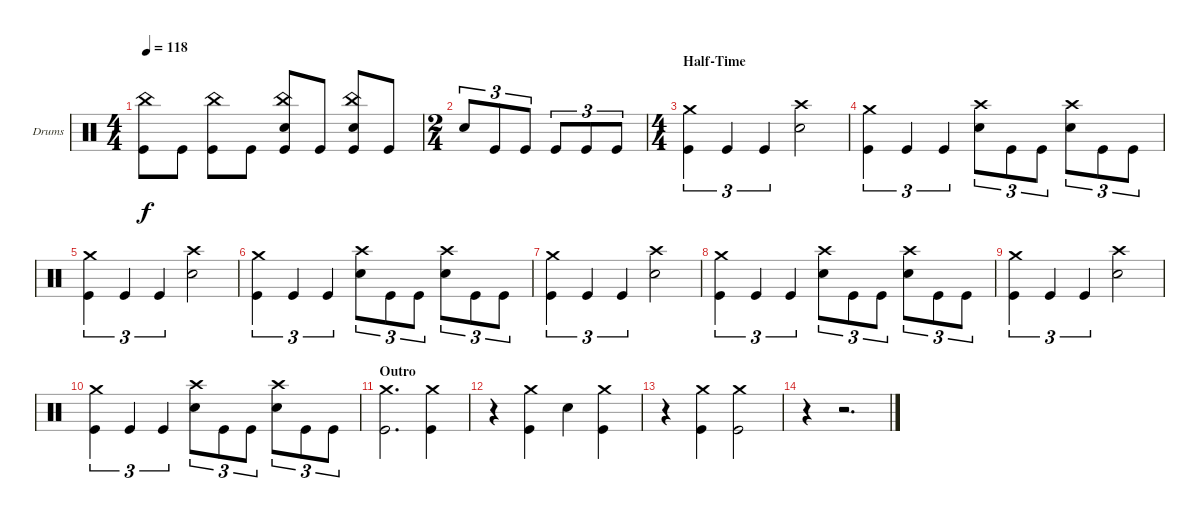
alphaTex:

\bracketExtendMode groupsimilarinstruments
\firstSystemTrackNameOrientation horizontal
\otherSystemsTrackNameOrientation horizontal
\track ("Drumkit" "Drums") {solo instrument percussion}
\staff {score}
\articulation defaults
\ts (4 4)
\tempo 118
\clef neutral
\ks c
("Kick (hit)" "China (hit)").8{dy f} "Kick (hit)".8 ("Kick (hit)" "China (hit)").8 "Kick (hit)".8 ("Kick (hit)" "Snare (hit) 2" "China (hit)").8 "Kick (hit)".8 ("Kick (hit)" "Snare (hit) 2" "China (hit)").8 "Kick (hit)".8 |
\ts (2 4)
\beaming (8 2 2)
"Snare (hit) 2".8{tu (3 2)} "Kick (hit)".8{tu (3 2)} "Kick (hit)".8{tu (3 2)} "Kick (hit)".8{tu (3 2)} "Kick (hit)".8{tu (3 2)} "Kick (hit)".8{tu (3 2)} |
\ts (4 4)
\beaming (8 2 2 2 2)
\section ("" "Half-Time")
("Kick (hit)" "Crash medium (hit)").4{tu (3 2)} "Kick (hit)".4{tu (3 2)} "Kick (hit)".4{tu (3 2)} ("Snare (hit) 2" "Crash high (hit)").2 |
("Kick (hit)" "Crash medium (hit)").4{tu (3 2)} "Kick (hit)".4{tu (3 2)} "Kick (hit)".4{tu (3 2)} ("Snare (hit) 2" "Crash high (hit)").8{tu (3 2)} "Kick (hit)".8{tu (3 2)} "Kick (hit)".8{tu (3 2)} ("Snare (hit) 2" "Crash high (hit)").8{tu (3 2)} "Kick (hit)".8{tu (3 2)} "Kick (hit)".8{tu (3 2)} |
("Kick (hit)" "Crash medium (hit)").4{tu (3 2)} "Kick (hit)".4{tu (3 2)} "Kick (hit)".4{tu (3 2)} ("Snare (hit) 2" "Crash high (hit)").2 |
("Kick (hit)" "Crash medium (hit)").4{tu (3 2)} "Kick (hit)".4{tu (3 2)} "Kick (hit)".4{tu (3 2)} ("Snare (hit) 2" "Crash high (hit)").8{tu (3 2)} "Kick (hit)".8{tu (3 2)} "Kick (hit)".8{tu (3 2)} ("Snare (hit) 2" "Crash high (hit)").8{tu (3 2)} "Kick (hit)".8{tu (3 2)} "Kick (hit)".8{tu (3 2)} |
("Kick (hit)" "Crash medium (hit)").4{tu (3 2)} "Kick (hit)".4{tu (3 2)} "Kick (hit)".4{tu (3 2)} ("Snare (hit) 2" "Crash high (hit)").2 |
("Kick (hit)" "Crash medium (hit)").4{tu (3 2)} "Kick (hit)".4{tu (3 2)} "Kick (hit)".4{tu (3 2)} ("Snare (hit) 2" "Crash high (hit)").8{tu (3 2)} "Kick (hit)".8{tu (3 2)} "Kick (hit)".8{tu (3 2)} ("Snare (hit) 2" "Crash high (hit)").8{tu (3 2)} "Kick (hit)".8{tu (3 2)} "Kick (hit)".8{tu (3 2)} |
("Kick (hit)" "Crash medium (hit)").4{tu (3 2)} "Kick (hit)".4{tu (3 2)} "Kick (hit)".4{tu (3 2)} ("Snare (hit) 2" "Crash high (hit)").2 |
("Kick (hit)" "Crash medium (hit)").4{tu (3 2)} "Kick (hit)".4{tu (3 2)} "Kick (hit)".4{tu (3 2)} ("Snare (hit) 2" "Crash high (hit)").8{tu (3 2)} "Kick (hit)".8{tu (3 2)} "Kick (hit)".8{tu (3 2)} ("Snare (hit) 2" "Crash high (hit)").8{tu (3 2)} "Kick (hit)".8{tu (3 2)} "Kick (hit)".8{tu (3 2)} |
\section ("" "Outro")
("Kick (hit)" "Crash medium (hit)").2{d} ("Kick (hit)" "Crash medium (hit)").4 |
r.4 ("Kick (hit)" "Crash medium (hit)").4 "Snare (hit) 2".4 ("Kick (hit)" "Crash medium (hit)").4 |
r.4 ("Kick (hit)" "Crash medium (hit)").4 ("Kick (hit)" "Crash medium (hit)").2 |
r.4 r.2{d}
